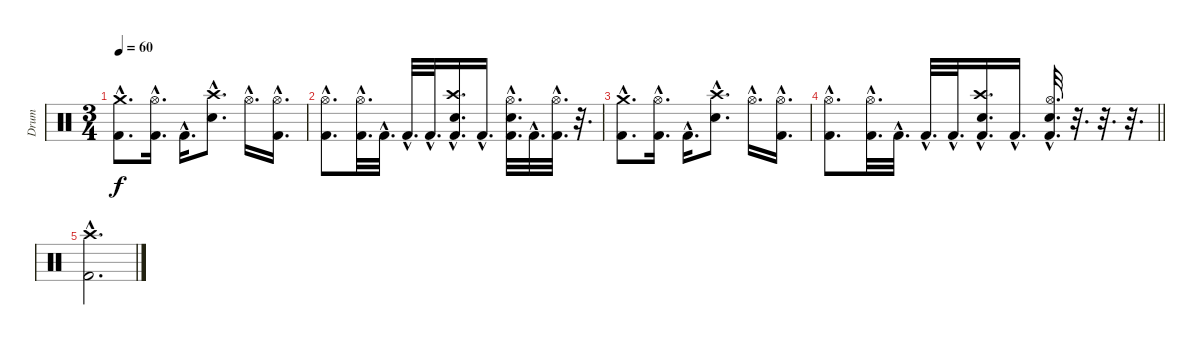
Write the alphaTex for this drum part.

\track ("Drum" "Drum") {instrument percussion}
\staff {score}
\articulation defaults
\ts (3 4)
\tempo 60
\clef neutral
\ks c
("Crash medium (hit)"{hac} "Kick (hit) 2"{hac}).8{d dy f} ("Hi-Hat (open)"{hac} "Kick (hit) 2"{hac}).16{d} "Kick (hit) 2"{hac}.16{d} ("Crash high (hit)"{hac} "Snare (hit) 2"{hac}).8{d} "Hi-Hat (open)"{hac}.16{d} ("Hi-Hat (open)"{hac} "Kick (hit) 2"{hac}).16{d} |
("Hi-Hat (open)"{hac} "Kick (hit) 2"{hac}).8{d} ("Hi-Hat (open)"{hac} "Kick (hit) 2"{hac}).32{d} "Kick (hit) 2"{hac}.32{d} "Kick (hit) 2"{hac}.32{d} "Kick (hit) 2"{hac}.32{d} ("Crash high (hit)"{hac} "Snare (hit) 2"{hac} "Kick (hit) 2"{hac}).16{d} "Kick (hit) 2"{hac}.16{d} ("Hi-Hat (open)"{hac} "Snare (hit) 2"{hac} "Kick (hit) 2"{hac}).32{d} "Kick (hit) 2"{hac}.32{d} ("Hi-Hat (open)"{hac} "Kick (hit) 2"{hac}).32{d} r.32{d} |
("Crash medium (hit)"{hac} "Kick (hit) 2"{hac}).8{d} ("Hi-Hat (open)"{hac} "Kick (hit) 2"{hac}).16{d} "Kick (hit) 2"{hac}.16{d} ("Crash high (hit)"{hac} "Snare (hit) 2"{hac}).8{d} "Hi-Hat (open)"{hac}.16{d} ("Hi-Hat (open)"{hac} "Kick (hit) 2"{hac}).16{d} |
\barLineRight lightlight
("Hi-Hat (open)"{hac} "Kick (hit) 2"{hac}).8{d} ("Hi-Hat (open)"{hac} "Kick (hit) 2"{hac}).32{d} "Kick (hit) 2"{hac}.32{d} "Kick (hit) 2"{hac}.32{d} "Kick (hit) 2"{hac}.32{d} ("Crash high (hit)"{hac} "Snare (hit) 2"{hac} "Kick (hit) 2"{hac}).16{d} "Kick (hit) 2"{hac}.16{d} ("Hi-Hat (open)"{hac} "Snare (hit) 2"{hac} "Kick (hit) 2"{hac}).32{d} r.32{d} r.32{d} r.32{d} |
("Crash high (hit)"{hac} "Kick (hit) 2"{hac}).2{d}
